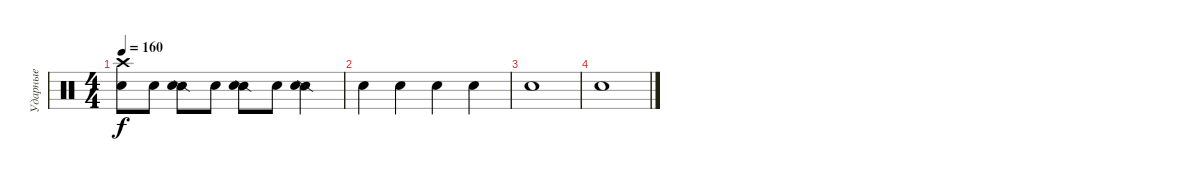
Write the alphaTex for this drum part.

\track ("Ударные" "Ударные") {instrument percussion}
\staff {score}
\articulation defaults
\ts (4 4)
\tempo 160
\clef neutral
\ks c
("Crash high (hit)" "Snare (hit) 2").8{dy f} "Snare (hit) 2".8 ("Snare (side stick) 2" "Snare (hit) 2").8 "Snare (hit) 2".8 ("Snare (side stick) 2" "Snare (hit) 2").8 "Snare (hit) 2".8 ("Snare (side stick) 2" "Snare (hit) 2").4 |
"Snare (hit) 2".4 "Snare (hit) 2".4 "Snare (hit) 2".4 "Snare (hit) 2".4 |
"Snare (hit) 2".1 |
"Snare (hit) 2".1
